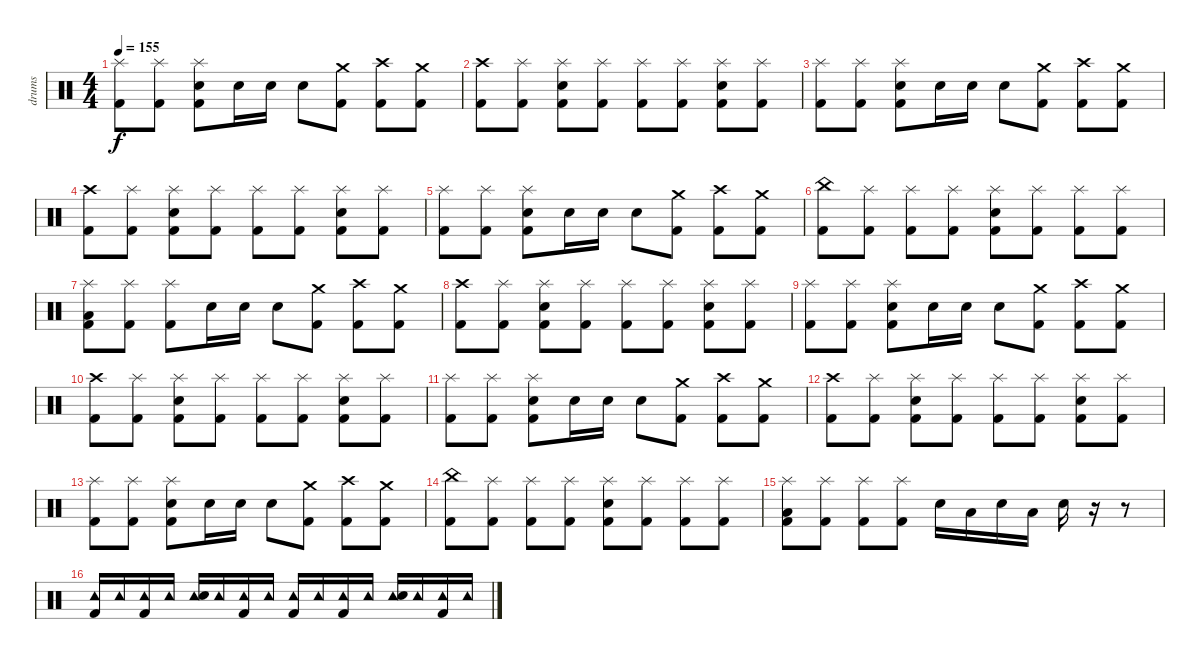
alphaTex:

\track ("drums" "drums") {instrument percussion}
\staff {score}
\articulation defaults
\ts (4 4)
\tempo 155
\clef neutral
\ks c
("Splash (hit)" "Kick (hit) 2").8{dy f} ("Splash (hit)" "Kick (hit) 2").8 ("Splash (hit)" "Snare (hit) 2" "Kick (hit) 2").8 "Snare (hit) 2".16 "Snare (hit) 2".16 "Snare (hit) 2".8 ("Crash medium (hit)" "Kick (hit) 2").8 ("Crash high (hit)" "Kick (hit) 2").8 ("Crash medium (hit)" "Kick (hit) 2").8 |
("Crash high (hit)" "Kick (hit) 2").8 ("Splash (hit)" "Kick (hit) 2").8 ("Splash (hit)" "Snare (hit) 2" "Kick (hit) 2").8 ("Splash (hit)" "Kick (hit) 2").8 ("Splash (hit)" "Kick (hit) 2").8 ("Splash (hit)" "Kick (hit) 2").8 ("Splash (hit)" "Snare (hit) 2" "Kick (hit) 2").8 ("Splash (hit)" "Kick (hit) 2").8 |
("Splash (hit)" "Kick (hit) 2").8 ("Splash (hit)" "Kick (hit) 2").8 ("Splash (hit)" "Snare (hit) 2" "Kick (hit) 2").8 "Snare (hit) 2".16 "Snare (hit) 2".16 "Snare (hit) 2".8 ("Crash medium (hit)" "Kick (hit) 2").8 ("Crash high (hit)" "Kick (hit) 2").8 ("Crash medium (hit)" "Kick (hit) 2").8 |
("Crash high (hit)" "Kick (hit) 2").8 ("Splash (hit)" "Kick (hit) 2").8 ("Splash (hit)" "Snare (hit) 2" "Kick (hit) 2").8 ("Splash (hit)" "Kick (hit) 2").8 ("Splash (hit)" "Kick (hit) 2").8 ("Splash (hit)" "Kick (hit) 2").8 ("Splash (hit)" "Snare (hit) 2" "Kick (hit) 2").8 ("Splash (hit)" "Kick (hit) 2").8 |
("Splash (hit)" "Kick (hit) 2").8 ("Splash (hit)" "Kick (hit) 2").8 ("Splash (hit)" "Snare (hit) 2" "Kick (hit) 2").8 "Snare (hit) 2".16 "Snare (hit) 2".16 "Snare (hit) 2".8 ("Crash medium (hit)" "Kick (hit) 2").8 ("Crash high (hit)" "Kick (hit) 2").8 ("Crash medium (hit)" "Kick (hit) 2").8 |
("China (hit)" "Kick (hit) 2").8 ("Splash (hit)" "Kick (hit) 2").8 ("Splash (hit)" "Kick (hit) 2").8 ("Splash (hit)" "Kick (hit) 2").8 ("Splash (hit)" "Snare (hit) 2" "Kick (hit) 2").8 ("Splash (hit)" "Kick (hit) 2").8 ("Splash (hit)" "Kick (hit) 2").8 ("Splash (hit)" "Kick (hit) 2").8 |
("Splash (hit)" "Low Floor Tom (hit)" "Kick (hit) 2").8 ("Splash (hit)" "Kick (hit) 2").8 ("Splash (hit)" "Kick (hit) 2").8 "Snare (hit) 2".16 "Snare (hit) 2".16 "Snare (hit) 2".8 ("Crash medium (hit)" "Kick (hit) 2").8 ("Crash high (hit)" "Kick (hit) 2").8 ("Crash medium (hit)" "Kick (hit) 2").8 |
("Crash high (hit)" "Kick (hit) 2").8 ("Splash (hit)" "Kick (hit) 2").8 ("Splash (hit)" "Snare (hit) 2" "Kick (hit) 2").8 ("Splash (hit)" "Kick (hit) 2").8 ("Splash (hit)" "Kick (hit) 2").8 ("Splash (hit)" "Kick (hit) 2").8 ("Splash (hit)" "Snare (hit) 2" "Kick (hit) 2").8 ("Splash (hit)" "Kick (hit) 2").8 |
("Splash (hit)" "Kick (hit) 2").8 ("Splash (hit)" "Kick (hit) 2").8 ("Splash (hit)" "Snare (hit) 2" "Kick (hit) 2").8 "Snare (hit) 2".16 "Snare (hit) 2".16 "Snare (hit) 2".8 ("Crash medium (hit)" "Kick (hit) 2").8 ("Crash high (hit)" "Kick (hit) 2").8 ("Crash medium (hit)" "Kick (hit) 2").8 |
("Crash high (hit)" "Kick (hit) 2").8 ("Splash (hit)" "Kick (hit) 2").8 ("Splash (hit)" "Snare (hit) 2" "Kick (hit) 2").8 ("Splash (hit)" "Kick (hit) 2").8 ("Splash (hit)" "Kick (hit) 2").8 ("Splash (hit)" "Kick (hit) 2").8 ("Splash (hit)" "Snare (hit) 2" "Kick (hit) 2").8 ("Splash (hit)" "Kick (hit) 2").8 |
("Splash (hit)" "Kick (hit) 2").8 ("Splash (hit)" "Kick (hit) 2").8 ("Splash (hit)" "Snare (hit) 2" "Kick (hit) 2").8 "Snare (hit) 2".16 "Snare (hit) 2".16 "Snare (hit) 2".8 ("Crash medium (hit)" "Kick (hit) 2").8 ("Crash high (hit)" "Kick (hit) 2").8 ("Crash medium (hit)" "Kick (hit) 2").8 |
("Crash high (hit)" "Kick (hit) 2").8 ("Splash (hit)" "Kick (hit) 2").8 ("Splash (hit)" "Snare (hit) 2" "Kick (hit) 2").8 ("Splash (hit)" "Kick (hit) 2").8 ("Splash (hit)" "Kick (hit) 2").8 ("Splash (hit)" "Kick (hit) 2").8 ("Splash (hit)" "Snare (hit) 2" "Kick (hit) 2").8 ("Splash (hit)" "Kick (hit) 2").8 |
("Splash (hit)" "Kick (hit) 2").8 ("Splash (hit)" "Kick (hit) 2").8 ("Splash (hit)" "Snare (hit) 2" "Kick (hit) 2").8 "Snare (hit) 2".16 "Snare (hit) 2".16 "Snare (hit) 2".8 ("Crash medium (hit)" "Kick (hit) 2").8 ("Crash high (hit)" "Kick (hit) 2").8 ("Crash medium (hit)" "Kick (hit) 2").8 |
("China (hit)" "Kick (hit) 2").8 ("Splash (hit)" "Kick (hit) 2").8 ("Splash (hit)" "Kick (hit) 2").8 ("Splash (hit)" "Kick (hit) 2").8 ("Splash (hit)" "Snare (hit) 2" "Kick (hit) 2").8 ("Splash (hit)" "Kick (hit) 2").8 ("Splash (hit)" "Kick (hit) 2").8 ("Splash (hit)" "Kick (hit) 2").8 |
("Splash (hit)" "Low Floor Tom (hit)" "Kick (hit) 2").8 ("Splash (hit)" "Kick (hit) 2").8 ("Splash (hit)" "Kick (hit) 2").8 ("Splash (hit)" "Kick (hit) 2").8 "Snare (hit) 2".16 "Low Tom (hit)".16 "Snare (hit) 2".16 "Low Tom (hit)".16 "Snare (hit) 2".16 r.16 r.8 |
("Tambourine (hit)" "Kick (hit) 2").16 "Tambourine (hit)".16 ("Tambourine (hit)" "Kick (hit) 2").16 "Tambourine (hit)".16 ("Tambourine (hit)" "Snare (hit) 2").16 "Tambourine (hit)".16 ("Tambourine (hit)" "Kick (hit) 2").16 "Tambourine (hit)".16 ("Tambourine (hit)" "Kick (hit) 2").16 "Tambourine (hit)".16 ("Tambourine (hit)" "Kick (hit) 2").16 "Tambourine (hit)".16 ("Tambourine (hit)" "Snare (hit) 2").16 "Tambourine (hit)".16 ("Tambourine (hit)" "Kick (hit) 2").16 "Tambourine (hit)".16
